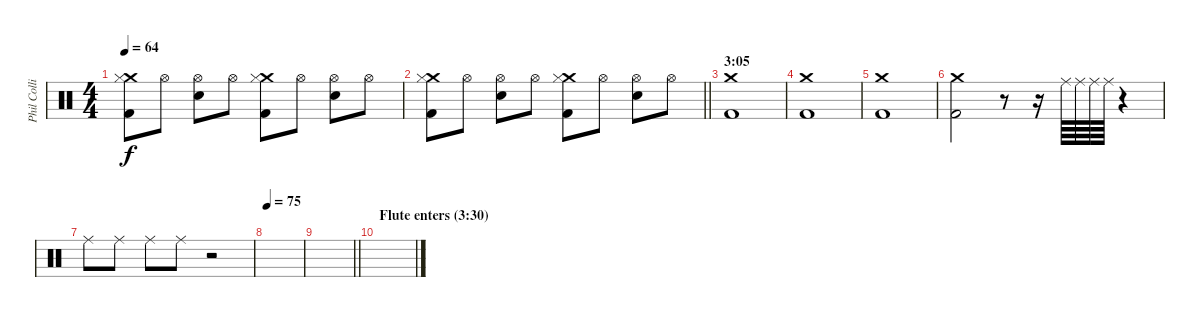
\track ("Phil Collins (drums)" "Phil Colli") {instrument percussion}
\staff {score}
\articulation defaults
\ts (4 4)
\tempo 64
\clef neutral
\ks c
("Crash medium (hit)" "Hi-Hat (closed)" "Kick (hit) 2").8{dy f} "Hi-Hat (open)".8 ("Hi-Hat (open)" "Electric Snare (hit)").8 "Hi-Hat (open)".8 ("Crash medium (hit)" "Hi-Hat (closed)" "Kick (hit) 2").8 "Hi-Hat (open)".8 ("Hi-Hat (open)" "Electric Snare (hit)").8 "Hi-Hat (open)".8 |
\barLineRight lightlight
("Crash medium (hit)" "Hi-Hat (closed)" "Kick (hit) 2").8 "Hi-Hat (open)".8 ("Hi-Hat (open)" "Electric Snare (hit)").8 "Hi-Hat (open)".8 ("Crash medium (hit)" "Hi-Hat (closed)" "Kick (hit) 2").8 "Hi-Hat (open)".8 ("Hi-Hat (open)" "Electric Snare (hit)").8 "Hi-Hat (open)".8 |
\section ("" "3:05")
("Crash medium (hit)" "Kick (hit) 2").1 |
("Crash medium (hit)" "Kick (hit) 2").1 |
("Crash medium (hit)" "Kick (hit) 2").1 |
("Crash medium (hit)" "Kick (hit) 2").2 r.8 r.16 "Ride (middle)".64 "Ride (middle)".64 "Ride (middle)".64 "Ride (middle)".64 r.4 |
"Ride (middle)".8 "Ride (middle)".8 "Ride (middle)".8 "Ride (middle)".8 r.2 |
\tempo 75
|
\barLineRight lightlight
|
\section ("" "Flute enters (3:30)")
